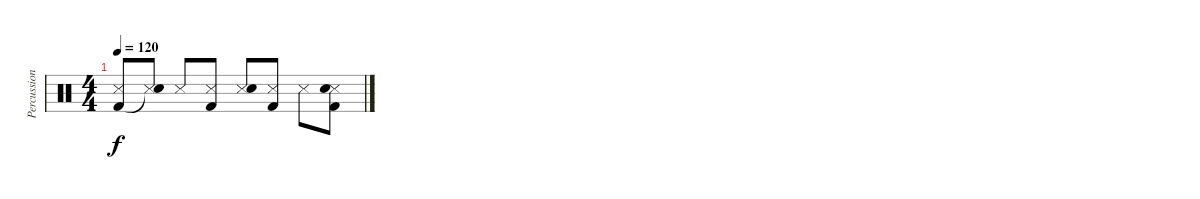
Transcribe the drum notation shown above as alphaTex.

\track ("Percussion" "Percussion") {instrument percussion}
\staff {score}
\articulation defaults
\ts (4 4)
\tempo 120
\clef neutral
\ks c
("Snare (side stick) 3" "Kick (hit) 2").8{dy f} ("Snare (side stick) 3" "Snare (hit)"{t}).8 "Snare (side stick) 3".8 ("Snare (side stick) 3" "Kick (hit) 2").8 ("Snare (side stick) 3" "Electric Snare (hit)").8 ("Snare (side stick) 3" "Kick (hit) 2").8 "Snare (side stick) 3".8 ("Snare (side stick) 3" "Electric Snare (hit)" "Kick (hit) 2").8
